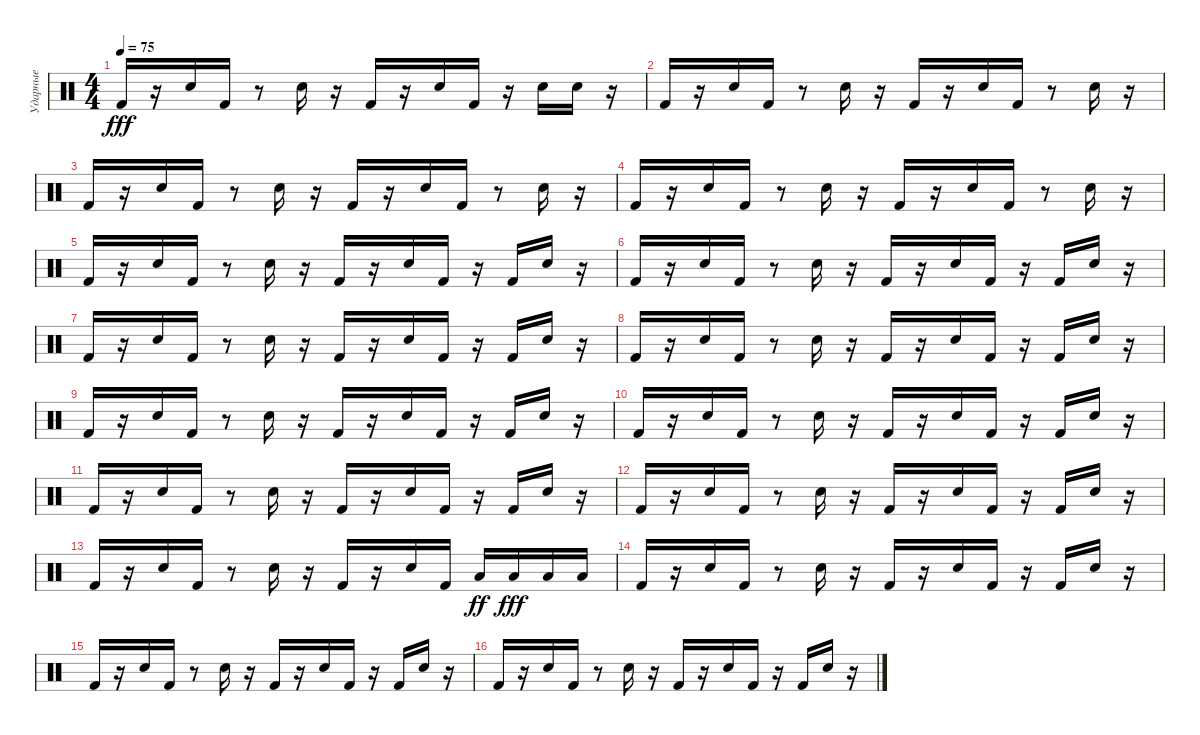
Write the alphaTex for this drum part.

\track ("Ударные" "Ударные") {instrument percussion}
\staff {score}
\articulation defaults
\ts (4 4)
\tempo 75
\clef neutral
\ks c "Kick (hit) 2".16{dy fff}
r.16 "Snare (hit) 2".16 "Kick (hit) 2".16 r.8 "Snare (hit) 2".16 r.16 "Kick (hit) 2".16 r.16 "Snare (hit) 2".16 "Kick (hit) 2".16 r.16 "Snare (hit) 2".16 "Snare (hit) 2".16 r.16 |
"Kick (hit) 2".16 r.16 "Snare (hit) 2".16 "Kick (hit) 2".16 r.8 "Snare (hit) 2".16 r.16 "Kick (hit) 2".16 r.16 "Snare (hit) 2".16 "Kick (hit) 2".16 r.8 "Snare (hit) 2".16 r.16 |
"Kick (hit) 2".16 r.16 "Snare (hit) 2".16 "Kick (hit) 2".16 r.8 "Snare (hit) 2".16 r.16 "Kick (hit) 2".16 r.16 "Snare (hit) 2".16 "Kick (hit) 2".16 r.8 "Snare (hit) 2".16 r.16 |
"Kick (hit) 2".16 r.16 "Snare (hit) 2".16 "Kick (hit) 2".16 r.8 "Snare (hit) 2".16 r.16 "Kick (hit) 2".16 r.16 "Snare (hit) 2".16 "Kick (hit) 2".16 r.8 "Snare (hit) 2".16 r.16 |
"Kick (hit) 2".16 r.16 "Snare (hit) 2".16 "Kick (hit) 2".16 r.8 "Snare (hit) 2".16 r.16 "Kick (hit) 2".16 r.16 "Snare (hit) 2".16 "Kick (hit) 2".16 r.16 "Kick (hit) 2".16 "Snare (hit) 2".16 r.16 |
"Kick (hit) 2".16 r.16 "Snare (hit) 2".16 "Kick (hit) 2".16 r.8 "Snare (hit) 2".16 r.16 "Kick (hit) 2".16 r.16 "Snare (hit) 2".16 "Kick (hit) 2".16 r.16 "Kick (hit) 2".16 "Snare (hit) 2".16 r.16 |
"Kick (hit) 2".16 r.16 "Snare (hit) 2".16 "Kick (hit) 2".16 r.8 "Snare (hit) 2".16 r.16 "Kick (hit) 2".16 r.16 "Snare (hit) 2".16 "Kick (hit) 2".16 r.16 "Kick (hit) 2".16 "Snare (hit) 2".16 r.16 |
"Kick (hit) 2".16 r.16 "Snare (hit) 2".16 "Kick (hit) 2".16 r.8 "Snare (hit) 2".16 r.16 "Kick (hit) 2".16 r.16 "Snare (hit) 2".16 "Kick (hit) 2".16 r.16 "Kick (hit) 2".16 "Snare (hit) 2".16 r.16 |
"Kick (hit) 2".16 r.16 "Snare (hit) 2".16 "Kick (hit) 2".16 r.8 "Snare (hit) 2".16 r.16 "Kick (hit) 2".16 r.16 "Snare (hit) 2".16 "Kick (hit) 2".16 r.16 "Kick (hit) 2".16 "Snare (hit) 2".16 r.16 |
"Kick (hit) 2".16 r.16 "Snare (hit) 2".16 "Kick (hit) 2".16 r.8 "Snare (hit) 2".16 r.16 "Kick (hit) 2".16 r.16 "Snare (hit) 2".16 "Kick (hit) 2".16 r.16 "Kick (hit) 2".16 "Snare (hit) 2".16 r.16 |
"Kick (hit) 2".16 r.16 "Snare (hit) 2".16 "Kick (hit) 2".16 r.8 "Snare (hit) 2".16 r.16 "Kick (hit) 2".16 r.16 "Snare (hit) 2".16 "Kick (hit) 2".16 r.16 "Kick (hit) 2".16 "Snare (hit) 2".16 r.16 |
"Kick (hit) 2".16 r.16 "Snare (hit) 2".16 "Kick (hit) 2".16 r.8 "Snare (hit) 2".16 r.16 "Kick (hit) 2".16 r.16 "Snare (hit) 2".16 "Kick (hit) 2".16 r.16 "Kick (hit) 2".16 "Snare (hit) 2".16 r.16 |
"Kick (hit) 2".16 r.16 "Snare (hit) 2".16 "Kick (hit) 2".16 r.8 "Snare (hit) 2".16 r.16 "Kick (hit) 2".16 r.16 "Snare (hit) 2".16 "Kick (hit) 2".16 "Low Tom (hit)".16{dy ff} "Low Tom (hit)".16{dy fff} "Low Tom (hit)".16 "Low Tom (hit)".16 |
"Kick (hit) 2".16 r.16 "Snare (hit) 2".16 "Kick (hit) 2".16 r.8 "Snare (hit) 2".16 r.16 "Kick (hit) 2".16 r.16 "Snare (hit) 2".16 "Kick (hit) 2".16 r.16 "Kick (hit) 2".16 "Snare (hit) 2".16 r.16 |
"Kick (hit) 2".16 r.16 "Snare (hit) 2".16 "Kick (hit) 2".16 r.8 "Snare (hit) 2".16 r.16 "Kick (hit) 2".16 r.16 "Snare (hit) 2".16 "Kick (hit) 2".16 r.16 "Kick (hit) 2".16 "Snare (hit) 2".16 r.16 |
"Kick (hit) 2".16 r.16 "Snare (hit) 2".16 "Kick (hit) 2".16 r.8 "Snare (hit) 2".16 r.16 "Kick (hit) 2".16 r.16 "Snare (hit) 2".16 "Kick (hit) 2".16 r.16 "Kick (hit) 2".16 "Snare (hit) 2".16 r.16
